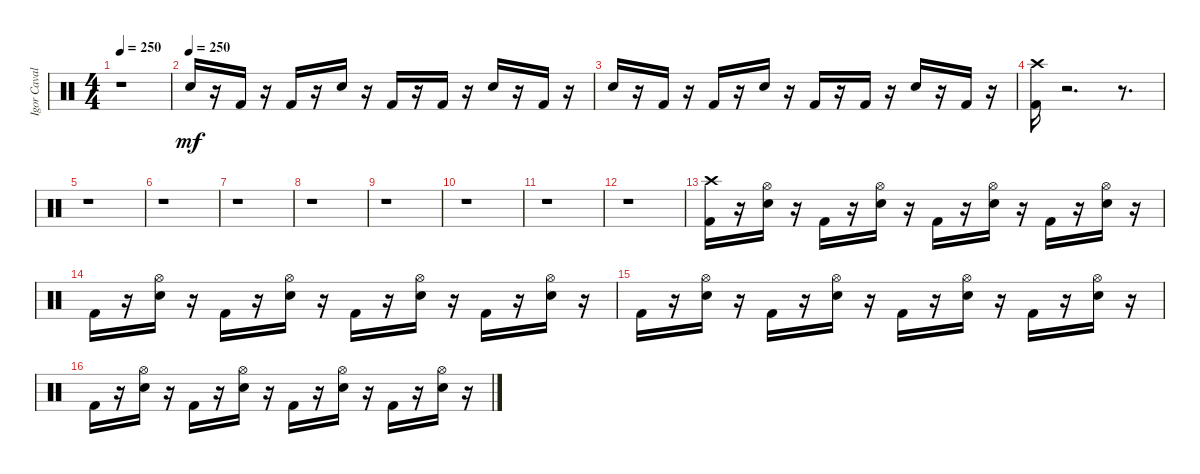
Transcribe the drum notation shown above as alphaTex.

\track ("Igor Cavalera" "Igor Caval") {instrument percussion}
\staff {score}
\articulation defaults
\ts (4 4)
\tempo 250
\clef neutral
\ks c
r.1{dy mf} |
\tempo (250)
"Snare (hit) 2".16 r.16 "Kick (hit) 2".16 r.16 "Kick (hit) 2".16 r.16 "Snare (hit) 2".16 r.16 "Kick (hit) 2".16 r.16 "Kick (hit) 2".16 r.16 "Snare (hit) 2".16 r.16 "Kick (hit) 2".16 r.16 |
"Snare (hit) 2".16 r.16 "Kick (hit) 2".16 r.16 "Kick (hit) 2".16 r.16 "Snare (hit) 2".16 r.16 "Kick (hit) 2".16 r.16 "Kick (hit) 2".16 r.16 "Snare (hit) 2".16 r.16 "Kick (hit) 2".16 r.16 |
("Kick (hit) 2" "Crash high (hit)").16 r.2{d} r.8{d} |
r.1 |
r.1 |
r.1 |
r.1 |
r.1 |
r.1 |
r.1 |
r.1 |
("Crash high (hit)" "Kick (hit) 2").16 r.16 ("Snare (hit) 2" "Hi-Hat (open)").16 r.16 "Kick (hit) 2".16 r.16 ("Snare (hit) 2" "Hi-Hat (open)").16 r.16 "Kick (hit) 2".16 r.16 ("Snare (hit) 2" "Hi-Hat (open)").16 r.16 "Kick (hit) 2".16 r.16 ("Snare (hit) 2" "Hi-Hat (open)").16 r.16 |
"Kick (hit) 2".16 r.16 ("Snare (hit) 2" "Hi-Hat (open)").16 r.16 "Kick (hit) 2".16 r.16 ("Snare (hit) 2" "Hi-Hat (open)").16 r.16 "Kick (hit) 2".16 r.16 ("Snare (hit) 2" "Hi-Hat (open)").16 r.16 "Kick (hit) 2".16 r.16 ("Snare (hit) 2" "Hi-Hat (open)").16 r.16 |
"Kick (hit) 2".16 r.16 ("Snare (hit) 2" "Hi-Hat (open)").16 r.16 "Kick (hit) 2".16 r.16 ("Snare (hit) 2" "Hi-Hat (open)").16 r.16 "Kick (hit) 2".16 r.16 ("Snare (hit) 2" "Hi-Hat (open)").16 r.16 "Kick (hit) 2".16 r.16 ("Snare (hit) 2" "Hi-Hat (open)").16 r.16 |
"Kick (hit) 2".16 r.16 ("Snare (hit) 2" "Hi-Hat (open)").16 r.16 "Kick (hit) 2".16 r.16 ("Snare (hit) 2" "Hi-Hat (open)").16 r.16 "Kick (hit) 2".16 r.16 ("Snare (hit) 2" "Hi-Hat (open)").16 r.16 "Kick (hit) 2".16 r.16 ("Snare (hit) 2" "Hi-Hat (open)").16 r.16
